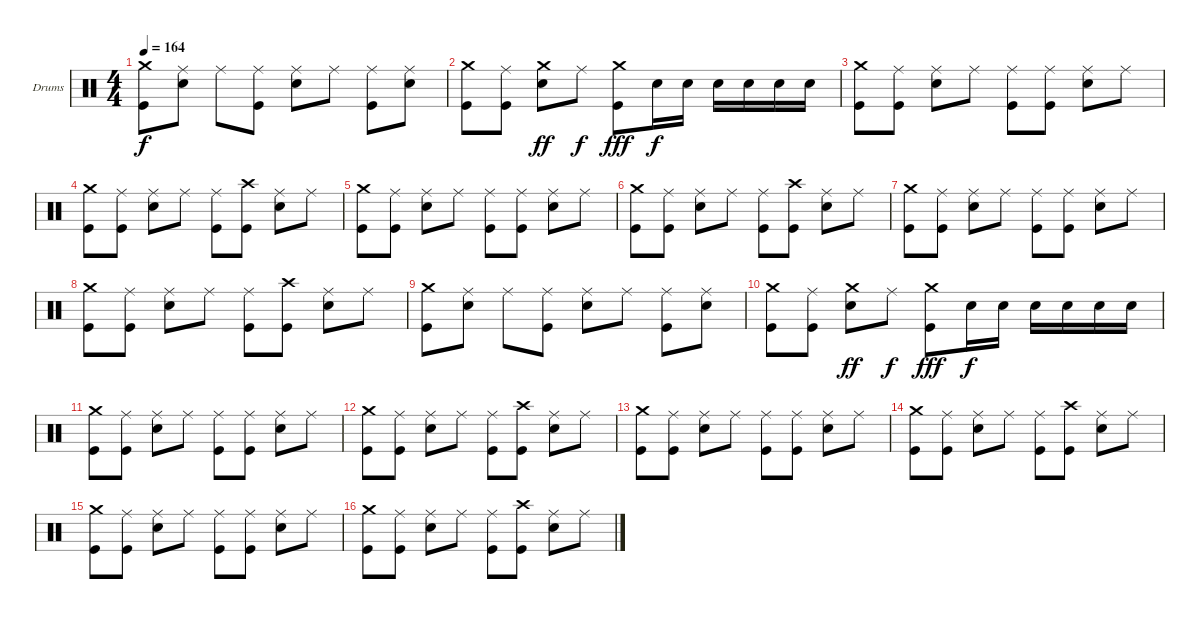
\defaultSystemsLayout 4
\bracketExtendMode nobrackets
\firstSystemTrackNameOrientation horizontal
\otherSystemsTrackNameOrientation horizontal
\track ("Dave Abbruzzese" "Drums") {solo instrument percussion}
\staff {score}
\articulation defaults
\ts (4 4)
\tempo 164
\clef neutral
\ks c
("Kick (hit)" "Crash medium (hit)").8{dy f} ("Snare (hit) 2" "Ride (middle)").8 "Ride (middle)".8 ("Kick (hit)" "Ride (middle)").8 ("Snare (hit) 2" "Ride (middle)").8 "Ride (middle)".8 ("Kick (hit)" "Ride (middle)").8 ("Snare (hit) 2" "Ride (middle)").8 |
("Crash medium (hit)" "Kick (hit)").8 ("Kick (hit)" "Ride (middle)").8 ("Crash medium (hit)" "Snare (hit) 2").8{dy ff} "Ride (middle)".8{dy f} ("Crash medium (hit)" "Kick (hit)").8{dy fff} "Snare (hit) 2".16{dy f} "Snare (hit) 2".16 "Snare (hit) 2".16 "Snare (hit) 2".16 "Snare (hit) 2".16 "Snare (hit) 2".16 |
("Kick (hit)" "Crash medium (hit)").8 ("Kick (hit)" "Ride (middle)").8 ("Snare (hit) 2" "Ride (middle)").8 "Ride (middle)".8 ("Kick (hit)" "Ride (middle)").8 ("Kick (hit)" "Ride (middle)").8 ("Snare (hit) 2" "Ride (middle)").8 "Ride (middle)".8 |
("Kick (hit)" "Crash medium (hit)").8 ("Kick (hit)" "Ride (middle)").8 ("Snare (hit) 2" "Ride (middle)").8 "Ride (middle)".8 ("Kick (hit)" "Ride (middle)").8 ("Kick (hit)" "Crash high (hit)").8 ("Snare (hit) 2" "Ride (middle)").8 "Ride (middle)".8 |
("Kick (hit)" "Crash medium (hit)").8 ("Kick (hit)" "Ride (middle)").8 ("Snare (hit) 2" "Ride (middle)").8 "Ride (middle)".8 ("Kick (hit)" "Ride (middle)").8 ("Kick (hit)" "Ride (middle)").8 ("Snare (hit) 2" "Ride (middle)").8 "Ride (middle)".8 |
("Kick (hit)" "Crash medium (hit)").8 ("Kick (hit)" "Ride (middle)").8 ("Snare (hit) 2" "Ride (middle)").8 "Ride (middle)".8 ("Kick (hit)" "Ride (middle)").8 ("Kick (hit)" "Crash high (hit)").8 ("Snare (hit) 2" "Ride (middle)").8 "Ride (middle)".8 |
("Kick (hit)" "Crash medium (hit)").8 ("Kick (hit)" "Ride (middle)").8 ("Snare (hit) 2" "Ride (middle)").8 "Ride (middle)".8 ("Kick (hit)" "Ride (middle)").8 ("Kick (hit)" "Ride (middle)").8 ("Snare (hit) 2" "Ride (middle)").8 "Ride (middle)".8 |
("Kick (hit)" "Crash medium (hit)").8 ("Kick (hit)" "Ride (middle)").8 ("Snare (hit) 2" "Ride (middle)").8 "Ride (middle)".8 ("Kick (hit)" "Ride (middle)").8 ("Kick (hit)" "Crash high (hit)").8 ("Snare (hit) 2" "Ride (middle)").8 "Ride (middle)".8 |
("Kick (hit)" "Crash medium (hit)").8 ("Snare (hit) 2" "Ride (middle)").8 "Ride (middle)".8 ("Kick (hit)" "Ride (middle)").8 ("Snare (hit) 2" "Ride (middle)").8 "Ride (middle)".8 ("Kick (hit)" "Ride (middle)").8 ("Snare (hit) 2" "Ride (middle)").8 |
("Crash medium (hit)" "Kick (hit)").8 ("Kick (hit)" "Ride (middle)").8 ("Crash medium (hit)" "Snare (hit) 2").8{dy ff} "Ride (middle)".8{dy f} ("Crash medium (hit)" "Kick (hit)").8{dy fff} "Snare (hit) 2".16{dy f} "Snare (hit) 2".16 "Snare (hit) 2".16 "Snare (hit) 2".16 "Snare (hit) 2".16 "Snare (hit) 2".16 |
("Kick (hit)" "Crash medium (hit)").8 ("Kick (hit)" "Ride (middle)").8 ("Snare (hit) 2" "Ride (middle)").8 "Ride (middle)".8 ("Kick (hit)" "Ride (middle)").8 ("Kick (hit)" "Ride (middle)").8 ("Snare (hit) 2" "Ride (middle)").8 "Ride (middle)".8 |
("Kick (hit)" "Crash medium (hit)").8 ("Kick (hit)" "Ride (middle)").8 ("Snare (hit) 2" "Ride (middle)").8 "Ride (middle)".8 ("Kick (hit)" "Ride (middle)").8 ("Kick (hit)" "Crash high (hit)").8 ("Snare (hit) 2" "Ride (middle)").8 "Ride (middle)".8 |
("Kick (hit)" "Crash medium (hit)").8 ("Kick (hit)" "Ride (middle)").8 ("Snare (hit) 2" "Ride (middle)").8 "Ride (middle)".8 ("Kick (hit)" "Ride (middle)").8 ("Kick (hit)" "Ride (middle)").8 ("Snare (hit) 2" "Ride (middle)").8 "Ride (middle)".8 |
("Kick (hit)" "Crash medium (hit)").8 ("Kick (hit)" "Ride (middle)").8 ("Snare (hit) 2" "Ride (middle)").8 "Ride (middle)".8 ("Kick (hit)" "Ride (middle)").8 ("Kick (hit)" "Crash high (hit)").8 ("Snare (hit) 2" "Ride (middle)").8 "Ride (middle)".8 |
("Kick (hit)" "Crash medium (hit)").8 ("Kick (hit)" "Ride (middle)").8 ("Snare (hit) 2" "Ride (middle)").8 "Ride (middle)".8 ("Kick (hit)" "Ride (middle)").8 ("Kick (hit)" "Ride (middle)").8 ("Snare (hit) 2" "Ride (middle)").8 "Ride (middle)".8 |
("Kick (hit)" "Crash medium (hit)").8 ("Kick (hit)" "Ride (middle)").8 ("Snare (hit) 2" "Ride (middle)").8 "Ride (middle)".8 ("Kick (hit)" "Ride (middle)").8 ("Kick (hit)" "Crash high (hit)").8 ("Snare (hit) 2" "Ride (middle)").8 "Ride (middle)".8
